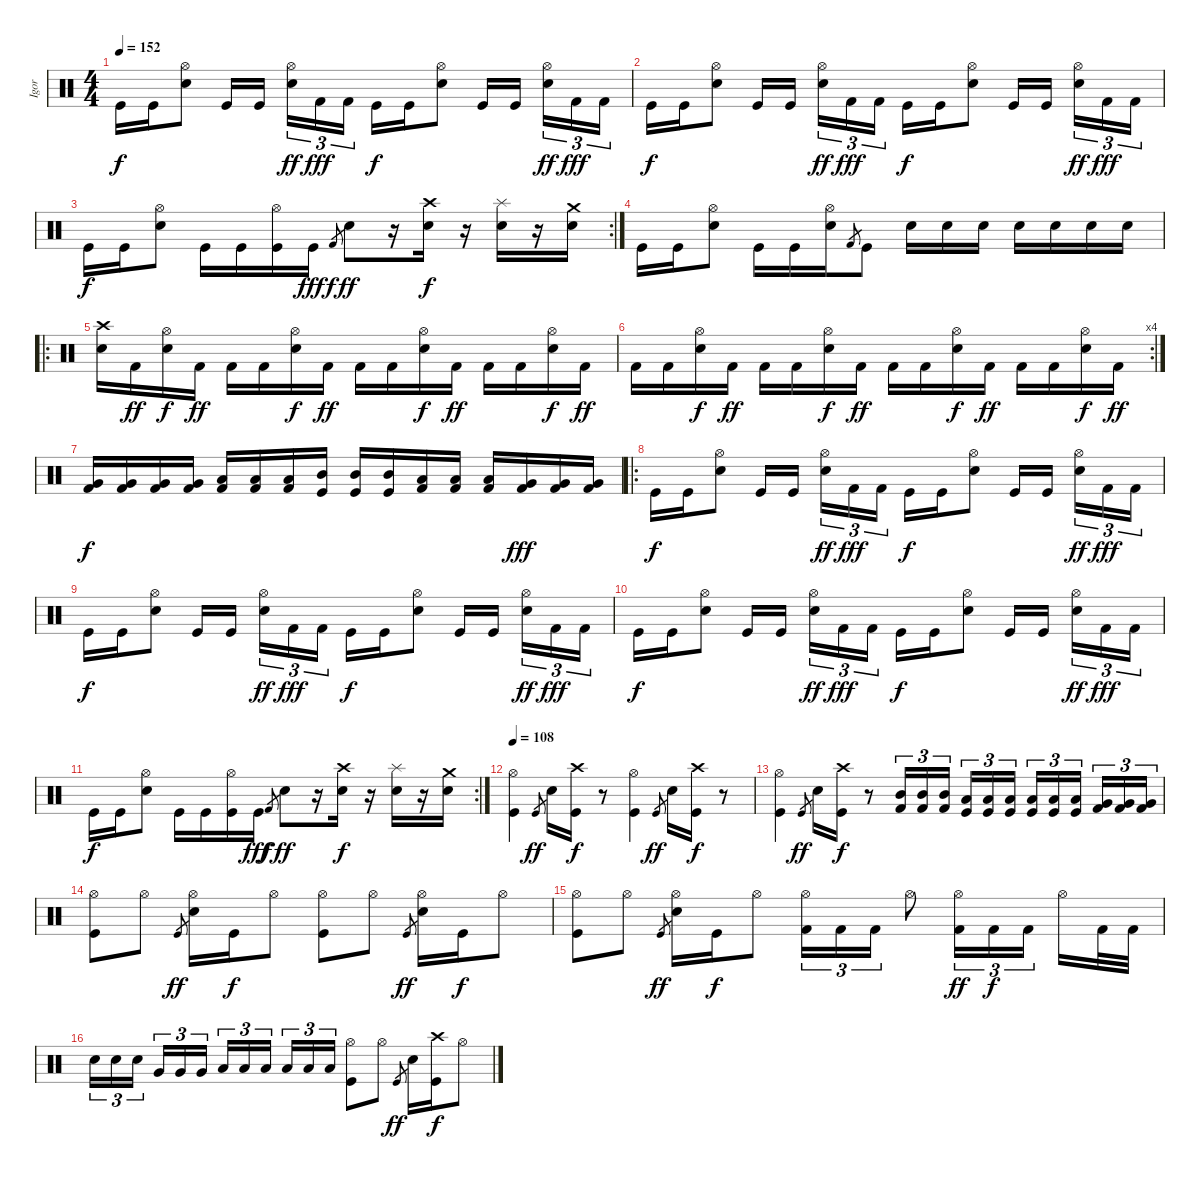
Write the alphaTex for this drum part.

\track ("Igor" "Igor") {instrument percussion}
\staff {score}
\articulation defaults
\ts (4 4)
\tempo 152
\clef neutral
\ks c "Kick (hit)".16{dy f} "Kick (hit)".16
("Hi-Hat (open)" "Snare (hit) 2").8 "Kick (hit)".16 "Kick (hit)".16 ("Hi-Hat (open)" "Snare (hit) 2").16{tu (3 2) dy ff} "Kick (hit) 2".16{tu (3 2) dy fff} "Kick (hit) 2".16{tu (3 2)} "Kick (hit)".16{dy f} "Kick (hit)".16 ("Hi-Hat (open)" "Snare (hit) 2").8 "Kick (hit)".16 "Kick (hit)".16 ("Hi-Hat (open)" "Snare (hit) 2").16{tu (3 2) dy ff} "Kick (hit) 2".16{tu (3 2) dy fff} "Kick (hit) 2".16{tu (3 2)} |
"Kick (hit)".16{dy f} "Kick (hit)".16 ("Hi-Hat (open)" "Snare (hit) 2").8 "Kick (hit)".16 "Kick (hit)".16 ("Hi-Hat (open)" "Snare (hit) 2").16{tu (3 2) dy ff} "Kick (hit) 2".16{tu (3 2) dy fff} "Kick (hit) 2".16{tu (3 2)} "Kick (hit)".16{dy f} "Kick (hit)".16 ("Hi-Hat (open)" "Snare (hit) 2").8 "Kick (hit)".16 "Kick (hit)".16 ("Hi-Hat (open)" "Snare (hit) 2").16{tu (3 2) dy ff} "Kick (hit) 2".16{tu (3 2) dy fff} "Kick (hit) 2".16{tu (3 2)} |
\rc 2 "Kick (hit)".16{dy f} "Kick (hit)".16
("Hi-Hat (open)" "Snare (hit) 2").8 "Kick (hit)".16 "Kick (hit)".16 ("Hi-Hat (open)" "Kick (hit)").16 "Kick (hit)".16{dy fff} "Kick (hit) 2".8{gr dy f} "Snare (hit) 2".8{dy ff} r.16 ("Crash high (hit)" "Snare (hit) 2").16{dy f} r.16 ("Splash (hit)" "Snare (hit) 2").16 r.16 ("Crash medium (hit)" "Snare (hit) 2").16 |
"Kick (hit)".16 "Kick (hit)".16 ("Hi-Hat (open)" "Snare (hit) 2").8 "Kick (hit)".16 "Kick (hit)".16 ("Hi-Hat (open)" "Snare (hit) 2").16 "Kick (hit) 2".8{gr} "Kick (hit)".8 "Snare (hit) 2".16 "Snare (hit) 2".16 "Snare (hit) 2".16 "Snare (hit) 2".16 "Snare (hit) 2".16 "Snare (hit) 2".16 "Snare (hit) 2".16 |
\ro
("Crash high (hit)" "Snare (hit) 2").16 "Kick (hit) 2".16{dy ff} ("Hi-Hat (open)" "Snare (hit) 2").16{dy f} "Kick (hit) 2".16{dy ff} "Kick (hit) 2".16 "Kick (hit) 2".16 ("Hi-Hat (open)" "Snare (hit) 2").16{dy f} "Kick (hit) 2".16{dy ff} "Kick (hit) 2".16 "Kick (hit) 2".16 ("Hi-Hat (open)" "Snare (hit) 2").16{dy f} "Kick (hit) 2".16{dy ff} "Kick (hit) 2".16 "Kick (hit) 2".16 ("Hi-Hat (open)" "Snare (hit) 2").16{dy f} "Kick (hit) 2".16{dy ff} |
\rc 4 "Kick (hit) 2".16 "Kick (hit) 2".16
("Hi-Hat (open)" "Snare (hit) 2").16{dy f} "Kick (hit) 2".16{dy ff} "Kick (hit) 2".16 "Kick (hit) 2".16 ("Hi-Hat (open)" "Snare (hit) 2").16{dy f} "Kick (hit) 2".16{dy ff} "Kick (hit) 2".16 "Kick (hit) 2".16 ("Hi-Hat (open)" "Snare (hit) 2").16{dy f} "Kick (hit) 2".16{dy ff} "Kick (hit) 2".16 "Kick (hit) 2".16 ("Hi-Hat (open)" "Snare (hit) 2").16{dy f} "Kick (hit) 2".16{dy ff} |
("Very Low Tom (hit)" "Kick (hit) 2").16{dy f} ("Very Low Tom (hit)" "Kick (hit) 2").16 ("Very Low Tom (hit)" "Kick (hit) 2").16 ("Very Low Tom (hit)" "Kick (hit) 2").16 ("Low Tom (hit)" "Kick (hit) 2").16 ("Low Tom (hit)" "Kick (hit) 2").16 ("Low Tom (hit)" "Kick (hit) 2").16 ("Mid Tom (hit)" "Kick (hit)").16 ("Mid Tom (hit)" "Kick (hit)").16 ("Mid Tom (hit)" "Kick (hit)").16 ("Low Tom (hit)" "Kick (hit) 2").16 ("Low Tom (hit)" "Kick (hit) 2").16 ("Low Tom (hit)" "Kick (hit) 2").16 ("Very Low Tom (hit)" "Kick (hit) 2").16{dy fff} ("Very Low Tom (hit)" "Kick (hit) 2").16 ("Very Low Tom (hit)" "Kick (hit) 2").16 |
\ro "Kick (hit)".16{dy f} "Kick (hit)".16
("Hi-Hat (open)" "Snare (hit) 2").8 "Kick (hit)".16 "Kick (hit)".16 ("Hi-Hat (open)" "Snare (hit) 2").16{tu (3 2) dy ff} "Kick (hit) 2".16{tu (3 2) dy fff} "Kick (hit) 2".16{tu (3 2)} "Kick (hit)".16{dy f} "Kick (hit)".16 ("Hi-Hat (open)" "Snare (hit) 2").8 "Kick (hit)".16 "Kick (hit)".16 ("Hi-Hat (open)" "Snare (hit) 2").16{tu (3 2) dy ff} "Kick (hit) 2".16{tu (3 2) dy fff} "Kick (hit) 2".16{tu (3 2)} |
"Kick (hit)".16{dy f} "Kick (hit)".16 ("Hi-Hat (open)" "Snare (hit) 2").8 "Kick (hit)".16 "Kick (hit)".16 ("Hi-Hat (open)" "Snare (hit) 2").16{tu (3 2) dy ff} "Kick (hit) 2".16{tu (3 2) dy fff} "Kick (hit) 2".16{tu (3 2)} "Kick (hit)".16{dy f} "Kick (hit)".16 ("Hi-Hat (open)" "Snare (hit) 2").8 "Kick (hit)".16 "Kick (hit)".16 ("Hi-Hat (open)" "Snare (hit) 2").16{tu (3 2) dy ff} "Kick (hit) 2".16{tu (3 2) dy fff} "Kick (hit) 2".16{tu (3 2)} |
"Kick (hit)".16{dy f} "Kick (hit)".16 ("Hi-Hat (open)" "Snare (hit) 2").8 "Kick (hit)".16 "Kick (hit)".16 ("Hi-Hat (open)" "Snare (hit) 2").16{tu (3 2) dy ff} "Kick (hit) 2".16{tu (3 2) dy fff} "Kick (hit) 2".16{tu (3 2)} "Kick (hit)".16{dy f} "Kick (hit)".16 ("Hi-Hat (open)" "Snare (hit) 2").8 "Kick (hit)".16 "Kick (hit)".16 ("Hi-Hat (open)" "Snare (hit) 2").16{tu (3 2) dy ff} "Kick (hit) 2".16{tu (3 2) dy fff} "Kick (hit) 2".16{tu (3 2)} |
\rc 2 "Kick (hit)".16{dy f} "Kick (hit)".16
("Hi-Hat (open)" "Snare (hit) 2").8 "Kick (hit)".16 "Kick (hit)".16 ("Hi-Hat (open)" "Kick (hit)").16 "Kick (hit)".16{dy fff} "Kick (hit) 2".8{gr dy f} "Snare (hit) 2".8{dy ff} r.16 ("Crash high (hit)" "Snare (hit) 2").16{dy f} r.16 ("Splash (hit)" "Snare (hit) 2").16 r.16 ("Crash medium (hit)" "Snare (hit) 2").16 |
\tempo 108
("Hi-Hat (open)" "Kick (hit)").4 "Kick (hit)".8{gr dy ff} "Snare (hit) 2".16 ("Crash high (hit)" "Kick (hit)").16{dy f} r.8 ("Hi-Hat (open)" "Kick (hit)").4 "Kick (hit)".8{gr dy ff} "Snare (hit) 2".16 ("Crash high (hit)" "Kick (hit)").16{dy f} r.8 |
("Hi-Hat (open)" "Kick (hit)").4 "Kick (hit)".8{gr dy ff} "Snare (hit) 2".16 ("Crash high (hit)" "Kick (hit)").16{dy f} r.8 ("Mid Tom (hit)" "Kick (hit) 2").16{tu (3 2)} ("Mid Tom (hit)" "Kick (hit) 2").16{tu (3 2)} ("Mid Tom (hit)" "Kick (hit) 2").16{tu (3 2)} ("Low Tom (hit)" "Kick (hit)").16{tu (3 2)} ("Low Tom (hit)" "Kick (hit)").16{tu (3 2)} ("Low Tom (hit)" "Kick (hit)").16{tu (3 2)} ("Low Tom (hit)" "Kick (hit)").16{tu (3 2)} ("Low Tom (hit)" "Kick (hit)").16{tu (3 2)} ("Low Tom (hit)" "Kick (hit)").16{tu (3 2)} ("Very Low Tom (hit)" "Kick (hit) 2").16{tu (3 2)} ("Very Low Tom (hit)" "Kick (hit) 2").16{tu (3 2)} ("Very Low Tom (hit)" "Kick (hit) 2").16{tu (3 2)} |
("Hi-Hat (open)" "Kick (hit)").8 "Hi-Hat (open)".8 "Kick (hit)".8{gr dy ff} ("Hi-Hat (open)" "Snare (hit) 2").16 "Kick (hit)".16{dy f} "Hi-Hat (open)".8 ("Hi-Hat (open)" "Kick (hit)").8 "Hi-Hat (open)".8 "Kick (hit)".8{gr dy ff} ("Hi-Hat (open)" "Snare (hit) 2").16 "Kick (hit)".16{dy f} "Hi-Hat (open)".8 |
("Hi-Hat (open)" "Kick (hit)").8 "Hi-Hat (open)".8 "Kick (hit)".8{gr dy ff} ("Hi-Hat (open)" "Snare (hit) 2").16 "Kick (hit)".16{dy f} "Hi-Hat (open)".8 ("Hi-Hat (open)" "Kick (hit) 2").16{tu (3 2)} "Kick (hit) 2".16{tu (3 2)} "Kick (hit) 2".16{tu (3 2)} "Hi-Hat (open)".8 ("Hi-Hat (open)" "Kick (hit) 2").16{tu (3 2) dy ff} "Kick (hit) 2".16{tu (3 2) dy f} "Kick (hit) 2".16{tu (3 2)} "Hi-Hat (open)".16 "Kick (hit) 2".32 "Kick (hit) 2".32 |
"Snare (hit) 2".16{tu (3 2)} "Snare (hit) 2".16{tu (3 2)} "Snare (hit) 2".16{tu (3 2)} "Very Low Tom (hit)".16{tu (3 2)} "Very Low Tom (hit)".16{tu (3 2)} "Very Low Tom (hit)".16{tu (3 2)} "Low Tom (hit)".16{tu (3 2)} "Low Tom (hit)".16{tu (3 2)} "Low Tom (hit)".16{tu (3 2)} "Low Floor Tom (hit)".16{tu (3 2)} "Low Floor Tom (hit)".16{tu (3 2)} "Low Floor Tom (hit)".16{tu (3 2)} ("Hi-Hat (open)" "Kick (hit)").8 "Hi-Hat (open)".8 "Kick (hit)".8{gr dy ff} "Snare (hit) 2".16 ("Crash high (hit)" "Kick (hit)").16{dy f} "Hi-Hat (open)".8
